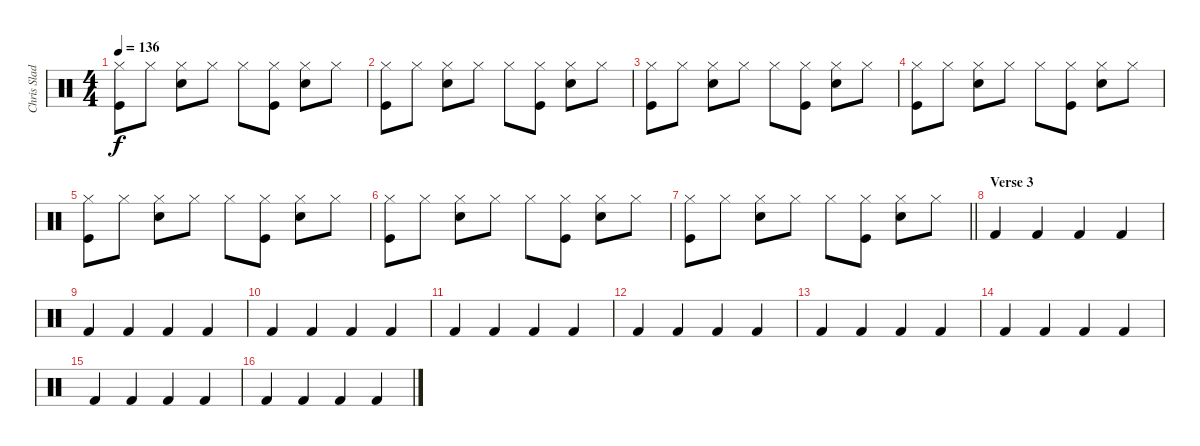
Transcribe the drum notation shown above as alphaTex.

\track ("Chris Slade" "Chris Slad") {instrument percussion}
\staff {score}
\articulation defaults
\ts (4 4)
\tempo 136
\clef neutral
\ks c
("Hi-Hat (closed)" "Kick (hit)").8{dy f} "Hi-Hat (closed)".8 ("Hi-Hat (closed)" "Snare (hit) 2").8 "Hi-Hat (closed)".8 "Hi-Hat (closed)".8 ("Hi-Hat (closed)" "Kick (hit)").8 ("Hi-Hat (closed)" "Snare (hit) 2").8 "Hi-Hat (closed)".8 |
("Hi-Hat (closed)" "Kick (hit)").8 "Hi-Hat (closed)".8 ("Hi-Hat (closed)" "Snare (hit) 2").8 "Hi-Hat (closed)".8 "Hi-Hat (closed)".8 ("Hi-Hat (closed)" "Kick (hit)").8 ("Hi-Hat (closed)" "Snare (hit) 2").8 "Hi-Hat (closed)".8 |
("Hi-Hat (closed)" "Kick (hit)").8 "Hi-Hat (closed)".8 ("Hi-Hat (closed)" "Snare (hit) 2").8 "Hi-Hat (closed)".8 "Hi-Hat (closed)".8 ("Hi-Hat (closed)" "Kick (hit)").8 ("Hi-Hat (closed)" "Snare (hit) 2").8 "Hi-Hat (closed)".8 |
("Hi-Hat (closed)" "Kick (hit)").8 "Hi-Hat (closed)".8 ("Hi-Hat (closed)" "Snare (hit) 2").8 "Hi-Hat (closed)".8 "Hi-Hat (closed)".8 ("Hi-Hat (closed)" "Kick (hit)").8 ("Hi-Hat (closed)" "Snare (hit) 2").8 "Hi-Hat (closed)".8 |
("Hi-Hat (closed)" "Kick (hit)").8 "Hi-Hat (closed)".8 ("Hi-Hat (closed)" "Snare (hit) 2").8 "Hi-Hat (closed)".8 "Hi-Hat (closed)".8 ("Hi-Hat (closed)" "Kick (hit)").8 ("Hi-Hat (closed)" "Snare (hit) 2").8 "Hi-Hat (closed)".8 |
("Hi-Hat (closed)" "Kick (hit)").8 "Hi-Hat (closed)".8 ("Hi-Hat (closed)" "Snare (hit) 2").8 "Hi-Hat (closed)".8 "Hi-Hat (closed)".8 ("Hi-Hat (closed)" "Kick (hit)").8 ("Hi-Hat (closed)" "Snare (hit) 2").8 "Hi-Hat (closed)".8 |
\barLineRight lightlight
("Hi-Hat (closed)" "Kick (hit)").8 "Hi-Hat (closed)".8 ("Hi-Hat (closed)" "Snare (hit) 2").8 "Hi-Hat (closed)".8 "Hi-Hat (closed)".8 ("Hi-Hat (closed)" "Kick (hit)").8 ("Hi-Hat (closed)" "Snare (hit) 2").8 "Hi-Hat (closed)".8 |
\section ("" "Verse 3")
"Kick (hit) 2".4 "Kick (hit) 2".4 "Kick (hit) 2".4 "Kick (hit) 2".4 |
"Kick (hit) 2".4 "Kick (hit) 2".4 "Kick (hit) 2".4 "Kick (hit) 2".4 |
"Kick (hit) 2".4 "Kick (hit) 2".4 "Kick (hit) 2".4 "Kick (hit) 2".4 |
"Kick (hit) 2".4 "Kick (hit) 2".4 "Kick (hit) 2".4 "Kick (hit) 2".4 |
"Kick (hit) 2".4 "Kick (hit) 2".4 "Kick (hit) 2".4 "Kick (hit) 2".4 |
"Kick (hit) 2".4 "Kick (hit) 2".4 "Kick (hit) 2".4 "Kick (hit) 2".4 |
"Kick (hit) 2".4 "Kick (hit) 2".4 "Kick (hit) 2".4 "Kick (hit) 2".4 |
"Kick (hit) 2".4 "Kick (hit) 2".4 "Kick (hit) 2".4 "Kick (hit) 2".4 |
"Kick (hit) 2".4 "Kick (hit) 2".4 "Kick (hit) 2".4 "Kick (hit) 2".4
